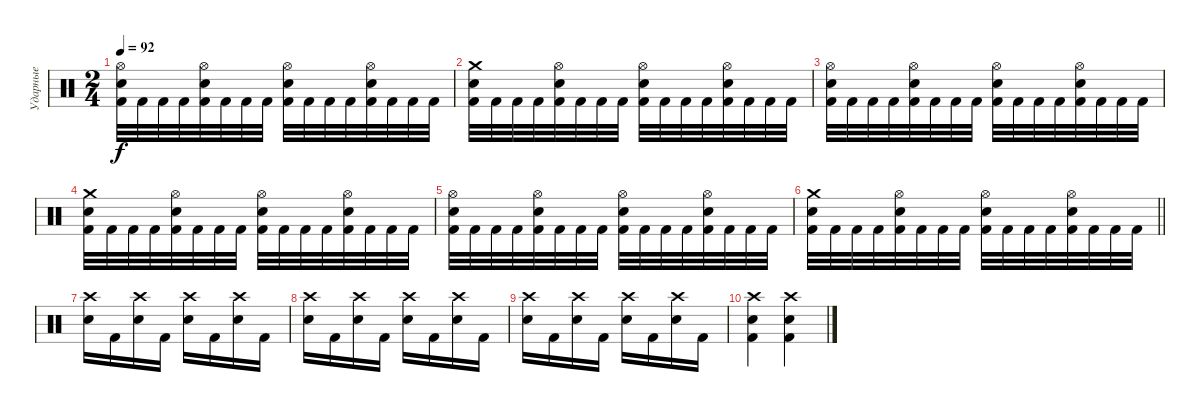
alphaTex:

\track ("Ударные" "Ударные") {instrument percussion}
\staff {score}
\articulation defaults
\ts (2 4)
\tempo 92
\clef neutral
\ks c
("Hi-Hat (open)" "Electric Snare (hit)" "Kick (hit) 2").32{dy f} "Kick (hit) 2".32 "Kick (hit) 2".32 "Kick (hit) 2".32 ("Hi-Hat (open)" "Electric Snare (hit)" "Kick (hit) 2").32 "Kick (hit) 2".32 "Kick (hit) 2".32 "Kick (hit) 2".32 ("Hi-Hat (open)" "Electric Snare (hit)" "Kick (hit) 2").32 "Kick (hit) 2".32 "Kick (hit) 2".32 "Kick (hit) 2".32 ("Hi-Hat (open)" "Electric Snare (hit)" "Kick (hit) 2").32 "Kick (hit) 2".32 "Kick (hit) 2".32 "Kick (hit) 2".32 |
("Crash medium (hit)" "Electric Snare (hit)" "Kick (hit) 2").32 "Kick (hit) 2".32 "Kick (hit) 2".32 "Kick (hit) 2".32 ("Hi-Hat (open)" "Electric Snare (hit)" "Kick (hit) 2").32 "Kick (hit) 2".32 "Kick (hit) 2".32 "Kick (hit) 2".32 ("Hi-Hat (open)" "Electric Snare (hit)" "Kick (hit) 2").32 "Kick (hit) 2".32 "Kick (hit) 2".32 "Kick (hit) 2".32 ("Hi-Hat (open)" "Electric Snare (hit)" "Kick (hit) 2").32 "Kick (hit) 2".32 "Kick (hit) 2".32 "Kick (hit) 2".32 |
("Hi-Hat (open)" "Electric Snare (hit)" "Kick (hit) 2").32 "Kick (hit) 2".32 "Kick (hit) 2".32 "Kick (hit) 2".32 ("Hi-Hat (open)" "Electric Snare (hit)" "Kick (hit) 2").32 "Kick (hit) 2".32 "Kick (hit) 2".32 "Kick (hit) 2".32 ("Hi-Hat (open)" "Electric Snare (hit)" "Kick (hit) 2").32 "Kick (hit) 2".32 "Kick (hit) 2".32 "Kick (hit) 2".32 ("Hi-Hat (open)" "Electric Snare (hit)" "Kick (hit) 2").32 "Kick (hit) 2".32 "Kick (hit) 2".32 "Kick (hit) 2".32 |
("Crash medium (hit)" "Electric Snare (hit)" "Kick (hit) 2").32 "Kick (hit) 2".32 "Kick (hit) 2".32 "Kick (hit) 2".32 ("Hi-Hat (open)" "Electric Snare (hit)" "Kick (hit) 2").32 "Kick (hit) 2".32 "Kick (hit) 2".32 "Kick (hit) 2".32 ("Hi-Hat (open)" "Electric Snare (hit)" "Kick (hit) 2").32 "Kick (hit) 2".32 "Kick (hit) 2".32 "Kick (hit) 2".32 ("Hi-Hat (open)" "Electric Snare (hit)" "Kick (hit) 2").32 "Kick (hit) 2".32 "Kick (hit) 2".32 "Kick (hit) 2".32 |
("Hi-Hat (open)" "Electric Snare (hit)" "Kick (hit) 2").32 "Kick (hit) 2".32 "Kick (hit) 2".32 "Kick (hit) 2".32 ("Hi-Hat (open)" "Electric Snare (hit)" "Kick (hit) 2").32 "Kick (hit) 2".32 "Kick (hit) 2".32 "Kick (hit) 2".32 ("Hi-Hat (open)" "Electric Snare (hit)" "Kick (hit) 2").32 "Kick (hit) 2".32 "Kick (hit) 2".32 "Kick (hit) 2".32 ("Hi-Hat (open)" "Electric Snare (hit)" "Kick (hit) 2").32 "Kick (hit) 2".32 "Kick (hit) 2".32 "Kick (hit) 2".32 |
\barLineRight lightlight
("Crash medium (hit)" "Electric Snare (hit)" "Kick (hit) 2").32 "Kick (hit) 2".32 "Kick (hit) 2".32 "Kick (hit) 2".32 ("Hi-Hat (open)" "Electric Snare (hit)" "Kick (hit) 2").32 "Kick (hit) 2".32 "Kick (hit) 2".32 "Kick (hit) 2".32 ("Hi-Hat (open)" "Electric Snare (hit)" "Kick (hit) 2").32 "Kick (hit) 2".32 "Kick (hit) 2".32 "Kick (hit) 2".32 ("Hi-Hat (open)" "Electric Snare (hit)" "Kick (hit) 2").32 "Kick (hit) 2".32 "Kick (hit) 2".32 "Kick (hit) 2".32 |
\section ("" "")
("Crash high (hit)" "Electric Snare (hit)").16 "Kick (hit) 2".16 ("Crash high (hit)" "Electric Snare (hit)").16 "Kick (hit) 2".16 ("Crash high (hit)" "Electric Snare (hit)").16 "Kick (hit) 2".16 ("Crash high (hit)" "Electric Snare (hit)").16 "Kick (hit) 2".16 |
("Crash high (hit)" "Electric Snare (hit)").16 "Kick (hit) 2".16 ("Crash high (hit)" "Electric Snare (hit)").16 "Kick (hit) 2".16 ("Crash high (hit)" "Electric Snare (hit)").16 "Kick (hit) 2".16 ("Crash high (hit)" "Electric Snare (hit)").16 "Kick (hit) 2".16 |
("Crash high (hit)" "Electric Snare (hit)").16 "Kick (hit) 2".16 ("Crash high (hit)" "Electric Snare (hit)").16 "Kick (hit) 2".16 ("Crash high (hit)" "Electric Snare (hit)").16 "Kick (hit) 2".16 ("Crash high (hit)" "Electric Snare (hit)").16 "Kick (hit) 2".16 |
("Crash high (hit)" "Electric Snare (hit)" "Kick (hit) 2").4 ("Crash high (hit)" "Electric Snare (hit)" "Kick (hit) 2").4
